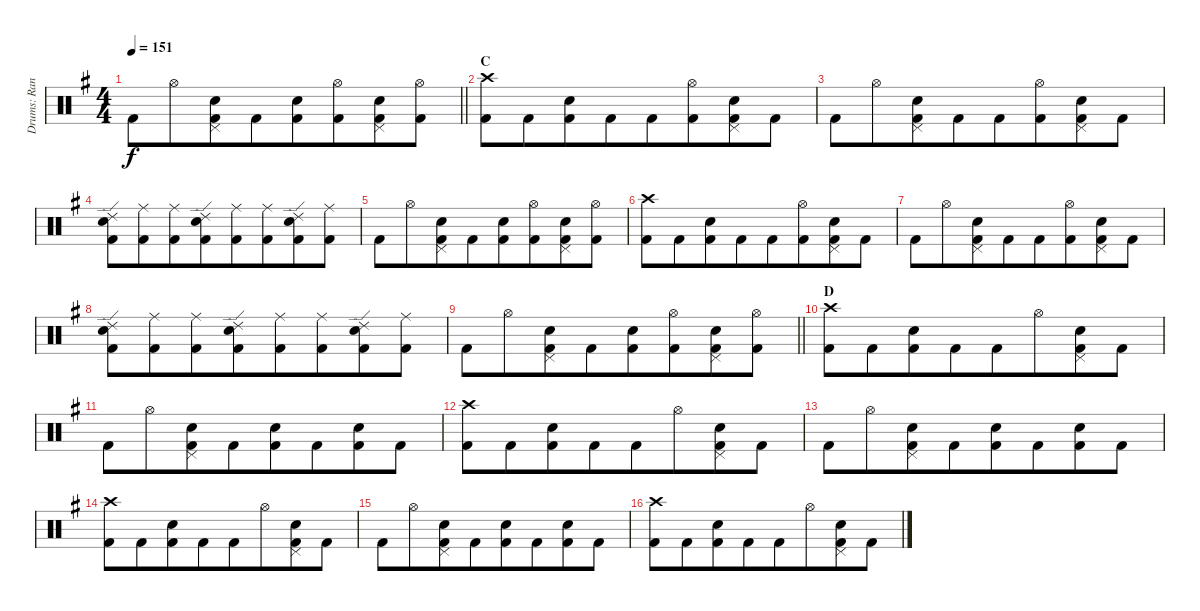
\track ("Drums: Randy" "Drums: Ran") {instrument percussion}
\staff {score}
\articulation defaults
\ts (4 4)
\tempo 151
\clef neutral
\barLineRight lightlight
\ks g "Kick (hit) 2".8{dy f} "Hi-Hat (open)".8{beam merge}
("Pedal Hi-Hat (hit)" "Snare (hit) 2" "Kick (hit) 2").8 "Kick (hit) 2".8{beam merge} ("Snare (hit) 2" "Kick (hit) 2").8 ("Hi-Hat (open)" "Kick (hit) 2").8{beam merge} ("Pedal Hi-Hat (hit)" "Snare (hit) 2" "Kick (hit) 2").8 ("Hi-Hat (open)" "Kick (hit) 2").8 |
\section ("" "C")
("Crash high (hit)" "Kick (hit) 2").8 "Kick (hit) 2".8{beam merge} ("Snare (hit) 2" "Kick (hit) 2").8 "Kick (hit) 2".8{beam merge} "Kick (hit) 2".8 ("Hi-Hat (open)" "Kick (hit) 2").8{beam merge} ("Pedal Hi-Hat (hit)" "Snare (hit) 2" "Kick (hit) 2").8 "Kick (hit) 2".8 |
"Kick (hit) 2".8 "Hi-Hat (open)".8{beam merge} ("Pedal Hi-Hat (hit)" "Snare (hit) 2" "Kick (hit) 2").8 "Kick (hit) 2".8{beam merge} "Kick (hit) 2".8 ("Hi-Hat (open)" "Kick (hit) 2").8{beam merge} ("Pedal Hi-Hat (hit)" "Snare (hit) 2" "Kick (hit) 2").8 "Kick (hit) 2".8 |
("Ride (edge) 2" "Snare (hit) 2" "Kick (hit) 2").8 ("Ride (middle)" "Kick (hit) 2").8{beam merge} ("Ride (middle)" "Kick (hit) 2").8 ("Ride (edge) 2" "Snare (hit) 2" "Kick (hit) 2").8{beam merge} ("Ride (middle)" "Kick (hit) 2").8 ("Ride (middle)" "Kick (hit) 2").8{beam merge} ("Ride (edge) 2" "Snare (hit) 2" "Kick (hit) 2").8 ("Ride (middle)" "Kick (hit) 2").8 |
"Kick (hit) 2".8 "Hi-Hat (open)".8{beam merge} ("Pedal Hi-Hat (hit)" "Snare (hit) 2" "Kick (hit) 2").8 "Kick (hit) 2".8{beam merge} ("Snare (hit) 2" "Kick (hit) 2").8 ("Hi-Hat (open)" "Kick (hit) 2").8{beam merge} ("Pedal Hi-Hat (hit)" "Snare (hit) 2" "Kick (hit) 2").8 ("Hi-Hat (open)" "Kick (hit) 2").8 |
("Crash high (hit)" "Kick (hit) 2").8 "Kick (hit) 2".8{beam merge} ("Snare (hit) 2" "Kick (hit) 2").8 "Kick (hit) 2".8{beam merge} "Kick (hit) 2".8 ("Hi-Hat (open)" "Kick (hit) 2").8{beam merge} ("Pedal Hi-Hat (hit)" "Snare (hit) 2" "Kick (hit) 2").8 "Kick (hit) 2".8 |
"Kick (hit) 2".8 "Hi-Hat (open)".8{beam merge} ("Pedal Hi-Hat (hit)" "Snare (hit) 2" "Kick (hit) 2").8 "Kick (hit) 2".8{beam merge} "Kick (hit) 2".8 ("Hi-Hat (open)" "Kick (hit) 2").8{beam merge} ("Pedal Hi-Hat (hit)" "Snare (hit) 2" "Kick (hit) 2").8 "Kick (hit) 2".8 |
("Ride (edge) 2" "Snare (hit) 2" "Kick (hit) 2").8 ("Ride (middle)" "Kick (hit) 2").8{beam merge} ("Ride (middle)" "Kick (hit) 2").8 ("Ride (edge) 2" "Snare (hit) 2" "Kick (hit) 2").8{beam merge} ("Ride (middle)" "Kick (hit) 2").8 ("Ride (middle)" "Kick (hit) 2").8{beam merge} ("Ride (edge) 2" "Snare (hit) 2" "Kick (hit) 2").8 ("Ride (middle)" "Kick (hit) 2").8 |
\barLineRight lightlight "Kick (hit) 2".8 "Hi-Hat (open)".8{beam merge}
("Pedal Hi-Hat (hit)" "Snare (hit) 2" "Kick (hit) 2").8 "Kick (hit) 2".8{beam merge} ("Snare (hit) 2" "Kick (hit) 2").8 ("Hi-Hat (open)" "Kick (hit) 2").8{beam merge} ("Pedal Hi-Hat (hit)" "Snare (hit) 2" "Kick (hit) 2").8 ("Hi-Hat (open)" "Kick (hit) 2").8 |
\section ("" "D")
("Crash high (hit)" "Kick (hit) 2").8 "Kick (hit) 2".8{beam merge} ("Snare (hit) 2" "Kick (hit) 2").8 "Kick (hit) 2".8{beam merge} "Kick (hit) 2".8 "Hi-Hat (open)".8{beam merge} ("Pedal Hi-Hat (hit)" "Snare (hit) 2" "Kick (hit) 2").8 "Kick (hit) 2".8 |
"Kick (hit) 2".8 "Hi-Hat (open)".8{beam merge} ("Pedal Hi-Hat (hit)" "Snare (hit) 2" "Kick (hit) 2").8 "Kick (hit) 2".8{beam merge} ("Snare (hit) 2" "Kick (hit) 2").8 "Kick (hit) 2".8{beam merge} ("Snare (hit) 2" "Kick (hit) 2").8 "Kick (hit) 2".8 |
("Crash high (hit)" "Kick (hit) 2").8 "Kick (hit) 2".8{beam merge} ("Snare (hit) 2" "Kick (hit) 2").8 "Kick (hit) 2".8{beam merge} "Kick (hit) 2".8 "Hi-Hat (open)".8{beam merge} ("Pedal Hi-Hat (hit)" "Snare (hit) 2" "Kick (hit) 2").8 "Kick (hit) 2".8 |
"Kick (hit) 2".8 "Hi-Hat (open)".8{beam merge} ("Pedal Hi-Hat (hit)" "Snare (hit) 2" "Kick (hit) 2").8 "Kick (hit) 2".8{beam merge} ("Snare (hit) 2" "Kick (hit) 2").8 "Kick (hit) 2".8{beam merge} ("Snare (hit) 2" "Kick (hit) 2").8 "Kick (hit) 2".8 |
("Crash high (hit)" "Kick (hit) 2").8 "Kick (hit) 2".8{beam merge} ("Snare (hit) 2" "Kick (hit) 2").8 "Kick (hit) 2".8{beam merge} "Kick (hit) 2".8 "Hi-Hat (open)".8{beam merge} ("Pedal Hi-Hat (hit)" "Snare (hit) 2" "Kick (hit) 2").8 "Kick (hit) 2".8 |
"Kick (hit) 2".8 "Hi-Hat (open)".8{beam merge} ("Pedal Hi-Hat (hit)" "Snare (hit) 2" "Kick (hit) 2").8 "Kick (hit) 2".8{beam merge} ("Snare (hit) 2" "Kick (hit) 2").8 "Kick (hit) 2".8{beam merge} ("Snare (hit) 2" "Kick (hit) 2").8 "Kick (hit) 2".8 |
("Crash high (hit)" "Kick (hit) 2").8 "Kick (hit) 2".8{beam merge} ("Snare (hit) 2" "Kick (hit) 2").8 "Kick (hit) 2".8{beam merge} "Kick (hit) 2".8 "Hi-Hat (open)".8{beam merge} ("Pedal Hi-Hat (hit)" "Snare (hit) 2" "Kick (hit) 2").8 "Kick (hit) 2".8
